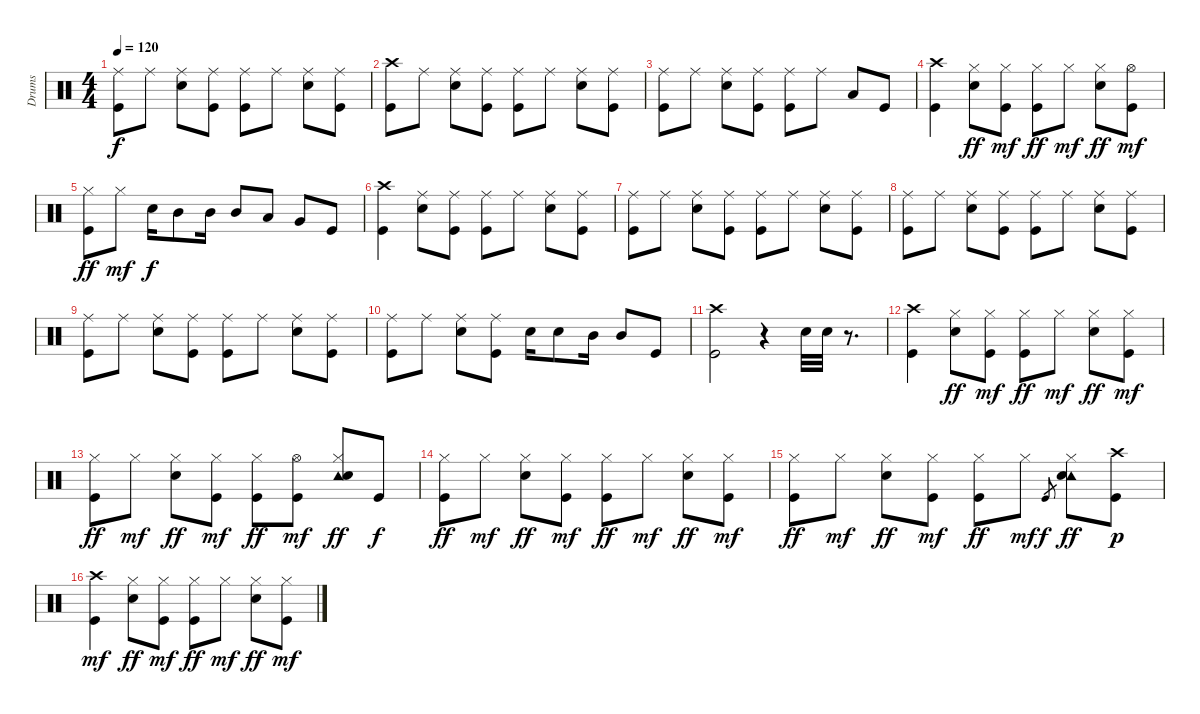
\track ("Drums" "Drums") {instrument percussion}
\staff {score}
\articulation defaults
\ts (4 4)
\tempo 120
\clef neutral
\ks c
("Ride (middle)" "Kick (hit)").8{dy f} "Ride (middle)".8 ("Ride (middle)" "Snare (hit) 2").8 ("Ride (middle)" "Kick (hit)").8 ("Ride (middle)" "Kick (hit)").8 "Ride (middle)".8 ("Ride (middle)" "Snare (hit) 2").8 ("Ride (middle)" "Kick (hit)").8 |
("Crash high (hit)" "Kick (hit)").8 "Ride (middle)".8 ("Ride (middle)" "Snare (hit) 2").8 ("Ride (middle)" "Kick (hit)").8 ("Ride (middle)" "Kick (hit)").8 "Ride (middle)".8 ("Ride (middle)" "Snare (hit) 2").8 ("Ride (middle)" "Kick (hit)").8 |
("Ride (middle)" "Kick (hit)").8 "Ride (middle)".8 ("Ride (middle)" "Snare (hit) 2").8 ("Ride (middle)" "Kick (hit)").8 ("Ride (middle)" "Kick (hit)").8 "Ride (middle)".8 "Low Tom (hit)".8 "Kick (hit)".8 |
("Crash high (hit)" "Kick (hit)").4 ("Hi-Hat (closed)" "Snare (hit) 2").8{dy ff} ("Hi-Hat (closed)" "Kick (hit)").8{dy mf} ("Hi-Hat (closed)" "Kick (hit)").8{dy ff} "Hi-Hat (closed)".8{dy mf} ("Hi-Hat (closed)" "Snare (hit) 2").8{dy ff} ("Hi-Hat (open)" "Kick (hit)").8{dy mf} |
("Hi-Hat (closed)" "Kick (hit)").8{dy ff} "Hi-Hat (closed)".8{dy mf} "Snare (hit) 2".16{dy f} "Mid Tom (hit)".8 "Mid Tom (hit)".16 "Mid Tom (hit)".8 "Low Tom (hit)".8 "Very Low Tom (hit)".8 "Kick (hit)".8 |
("Crash high (hit)" "Kick (hit)").4 ("Ride (middle)" "Snare (hit) 2").8 ("Ride (middle)" "Kick (hit)").8 ("Ride (middle)" "Kick (hit)").8 "Ride (middle)".8 ("Ride (middle)" "Snare (hit) 2").8 ("Ride (middle)" "Kick (hit)").8 |
("Ride (middle)" "Kick (hit)").8 "Ride (middle)".8 ("Ride (middle)" "Snare (hit) 2").8 ("Ride (middle)" "Kick (hit)").8 ("Ride (middle)" "Kick (hit)").8 "Ride (middle)".8 ("Ride (middle)" "Snare (hit) 2").8 ("Ride (middle)" "Kick (hit)").8 |
("Ride (middle)" "Kick (hit)").8 "Ride (middle)".8 ("Ride (middle)" "Snare (hit) 2").8 ("Ride (middle)" "Kick (hit)").8 ("Ride (middle)" "Kick (hit)").8 "Ride (middle)".8 ("Ride (middle)" "Snare (hit) 2").8 ("Ride (middle)" "Kick (hit)").8 |
("Ride (middle)" "Kick (hit)").8 "Ride (middle)".8 ("Ride (middle)" "Snare (hit) 2").8 ("Ride (middle)" "Kick (hit)").8 ("Ride (middle)" "Kick (hit)").8 "Ride (middle)".8 ("Ride (middle)" "Snare (hit) 2").8 ("Ride (middle)" "Kick (hit)").8 |
("Ride (middle)" "Kick (hit)").8 "Ride (middle)".8 ("Ride (middle)" "Snare (hit) 2").8 ("Ride (middle)" "Kick (hit)").8 "Snare (hit) 2".16 "Snare (hit) 2".8 "Mid Tom (hit)".16 "Mid Tom (hit)".8 "Kick (hit)".8 |
("Crash high (hit)" "Kick (hit)").2 r.4 "Snare (hit) 2".32 "Snare (hit) 2".32 r.8{d} |
("Crash high (hit)" "Kick (hit)").4 ("Hi-Hat (closed)" "Snare (hit) 2").8{dy ff} ("Hi-Hat (closed)" "Kick (hit)").8{dy mf} ("Hi-Hat (closed)" "Kick (hit)").8{dy ff} "Hi-Hat (closed)".8{dy mf} ("Hi-Hat (closed)" "Snare (hit) 2").8{dy ff} ("Hi-Hat (closed)" "Kick (hit)").8{dy mf} |
("Hi-Hat (closed)" "Kick (hit)").8{dy ff} "Hi-Hat (closed)".8{dy mf} ("Hi-Hat (closed)" "Snare (hit) 2").8{dy ff} ("Hi-Hat (closed)" "Kick (hit)").8{dy mf} ("Hi-Hat (closed)" "Kick (hit)").8{dy ff} ("Hi-Hat (open)" "Kick (hit)").8{dy mf} ("Hi-Hat (closed)" "Tambourine (hit)" "Snare (hit) 2").8{dy ff} "Kick (hit)".8{dy f} |
("Hi-Hat (closed)" "Kick (hit)").8{dy ff} "Hi-Hat (closed)".8{dy mf} ("Hi-Hat (closed)" "Snare (hit) 2").8{dy ff} ("Hi-Hat (closed)" "Kick (hit)").8{dy mf} ("Hi-Hat (closed)" "Kick (hit)").8{dy ff} "Hi-Hat (closed)".8{dy mf} ("Hi-Hat (closed)" "Snare (hit) 2").8{dy ff} ("Hi-Hat (closed)" "Kick (hit)").8{dy mf} |
("Hi-Hat (closed)" "Kick (hit)").8{dy ff} "Hi-Hat (closed)".8{dy mf} ("Hi-Hat (closed)" "Snare (hit) 2").8{dy ff} ("Hi-Hat (closed)" "Kick (hit)").8{dy mf} ("Hi-Hat (closed)" "Kick (hit)").8{dy ff} "Hi-Hat (closed)".8{dy mf} "Kick (hit)".8{gr dy f} ("Hi-Hat (closed)" "Tambourine (hit)" "Snare (hit) 2").8{dy ff} ("Crash high (hit)" "Kick (hit)").8{dy p} |
("Crash high (hit)" "Kick (hit)").4{dy mf} ("Hi-Hat (closed)" "Snare (hit) 2").8{dy ff} ("Hi-Hat (closed)" "Kick (hit)").8{dy mf} ("Hi-Hat (closed)" "Kick (hit)").8{dy ff} "Hi-Hat (closed)".8{dy mf} ("Hi-Hat (closed)" "Snare (hit) 2").8{dy ff} ("Hi-Hat (closed)" "Kick (hit)").8{dy mf}
